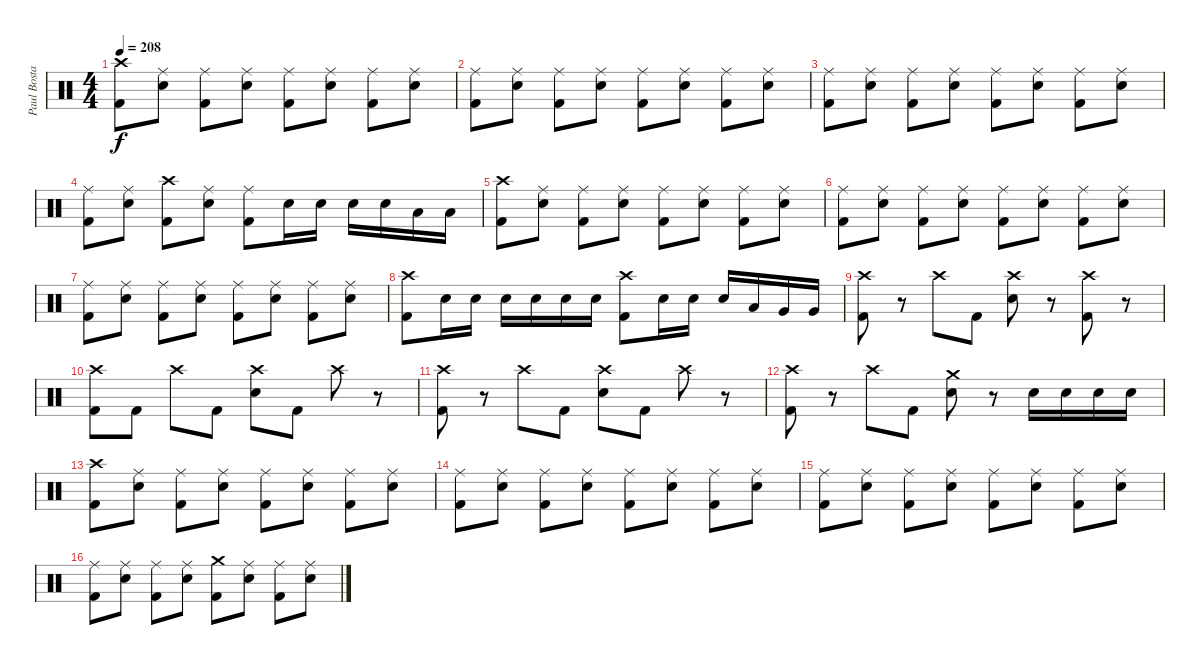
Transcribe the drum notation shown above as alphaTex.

\track ("Paul Bostaph" "Paul Bosta") {instrument percussion}
\staff {score}
\articulation defaults
\ts (4 4)
\tempo 208
\clef neutral
\ks c
("Crash high (hit)" "Kick (hit) 2").8{dy f} ("Ride (middle)" "Electric Snare (hit)").8 ("Ride (middle)" "Kick (hit) 2").8 ("Ride (middle)" "Electric Snare (hit)").8 ("Ride (middle)" "Kick (hit) 2").8 ("Ride (middle)" "Electric Snare (hit)").8 ("Ride (middle)" "Kick (hit) 2").8 ("Ride (middle)" "Electric Snare (hit)").8 |
("Ride (middle)" "Kick (hit) 2").8 ("Ride (middle)" "Electric Snare (hit)").8 ("Ride (middle)" "Kick (hit) 2").8 ("Ride (middle)" "Electric Snare (hit)").8 ("Ride (middle)" "Kick (hit) 2").8 ("Ride (middle)" "Electric Snare (hit)").8 ("Ride (middle)" "Kick (hit) 2").8 ("Ride (middle)" "Electric Snare (hit)").8 |
("Ride (middle)" "Kick (hit) 2").8 ("Ride (middle)" "Electric Snare (hit)").8 ("Ride (middle)" "Kick (hit) 2").8 ("Ride (middle)" "Electric Snare (hit)").8 ("Ride (middle)" "Kick (hit) 2").8 ("Ride (middle)" "Electric Snare (hit)").8 ("Ride (middle)" "Kick (hit) 2").8 ("Ride (middle)" "Electric Snare (hit)").8 |
("Ride (middle)" "Kick (hit) 2").8 ("Ride (middle)" "Electric Snare (hit)").8 ("Crash high (hit)" "Kick (hit) 2").8 ("Ride (middle)" "Electric Snare (hit)").8 ("Ride (middle)" "Kick (hit) 2").8 "Electric Snare (hit)".16 "Electric Snare (hit)".16 "Electric Snare (hit)".16 "Electric Snare (hit)".16 "Low Tom (hit)".16 "Low Tom (hit)".16 |
("Crash high (hit)" "Kick (hit) 2").8 ("Ride (middle)" "Electric Snare (hit)").8 ("Ride (middle)" "Kick (hit) 2").8 ("Ride (middle)" "Electric Snare (hit)").8 ("Ride (middle)" "Kick (hit) 2").8 ("Ride (middle)" "Electric Snare (hit)").8 ("Ride (middle)" "Kick (hit) 2").8 ("Ride (middle)" "Electric Snare (hit)").8 |
("Ride (middle)" "Kick (hit) 2").8 ("Ride (middle)" "Electric Snare (hit)").8 ("Ride (middle)" "Kick (hit) 2").8 ("Ride (middle)" "Electric Snare (hit)").8 ("Ride (middle)" "Kick (hit) 2").8 ("Ride (middle)" "Electric Snare (hit)").8 ("Ride (middle)" "Kick (hit) 2").8 ("Ride (middle)" "Electric Snare (hit)").8 |
("Ride (middle)" "Kick (hit) 2").8 ("Ride (middle)" "Electric Snare (hit)").8 ("Ride (middle)" "Kick (hit) 2").8 ("Ride (middle)" "Electric Snare (hit)").8 ("Ride (middle)" "Kick (hit) 2").8 ("Ride (middle)" "Electric Snare (hit)").8 ("Ride (middle)" "Kick (hit) 2").8 ("Ride (middle)" "Electric Snare (hit)").8 |
("Crash high (hit)" "Kick (hit) 2").8 "Electric Snare (hit)".16 "Electric Snare (hit)".16 "Electric Snare (hit)".16 "Electric Snare (hit)".16 "Electric Snare (hit)".16 "Electric Snare (hit)".16 ("Crash high (hit)" "Kick (hit) 2").8 "Electric Snare (hit)".16 "Electric Snare (hit)".16 "Electric Snare (hit)".16 "Low Tom (hit)".16 "Very Low Tom (hit)".16 "Very Low Tom (hit)".16 |
("Crash high (hit)" "Kick (hit) 2").8 r.8 "Crash high (hit)".8 "Kick (hit) 2".8 ("Crash high (hit)" "Electric Snare (hit)").8 r.8 ("Crash high (hit)" "Kick (hit) 2").8 r.8 |
("Crash high (hit)" "Kick (hit) 2").8 "Kick (hit) 2".8 "Crash high (hit)".8 "Kick (hit) 2".8 ("Crash high (hit)" "Electric Snare (hit)").8 "Kick (hit) 2".8 "Crash high (hit)".8 r.8 |
("Crash high (hit)" "Kick (hit) 2").8 r.8 "Crash high (hit)".8 "Kick (hit) 2".8 ("Crash high (hit)" "Electric Snare (hit)").8 "Kick (hit) 2".8 "Crash high (hit)".8 r.8 |
("Crash high (hit)" "Kick (hit) 2").8 r.8 "Crash high (hit)".8 "Kick (hit) 2".8 ("Crash medium (hit)" "Electric Snare (hit)").8 r.8 "Electric Snare (hit)".16 "Electric Snare (hit)".16 "Electric Snare (hit)".16 "Electric Snare (hit)".16 |
("Crash high (hit)" "Kick (hit) 2").8 ("Ride (middle)" "Electric Snare (hit)").8 ("Ride (middle)" "Kick (hit) 2").8 ("Ride (middle)" "Electric Snare (hit)").8 ("Ride (middle)" "Kick (hit) 2").8 ("Ride (middle)" "Electric Snare (hit)").8 ("Ride (middle)" "Kick (hit) 2").8 ("Ride (middle)" "Electric Snare (hit)").8 |
("Ride (middle)" "Kick (hit) 2").8 ("Ride (middle)" "Electric Snare (hit)").8 ("Ride (middle)" "Kick (hit) 2").8 ("Ride (middle)" "Electric Snare (hit)").8 ("Ride (middle)" "Kick (hit) 2").8 ("Ride (middle)" "Electric Snare (hit)").8 ("Ride (middle)" "Kick (hit) 2").8 ("Ride (middle)" "Electric Snare (hit)").8 |
("Ride (middle)" "Kick (hit) 2").8 ("Ride (middle)" "Electric Snare (hit)").8 ("Ride (middle)" "Kick (hit) 2").8 ("Ride (middle)" "Electric Snare (hit)").8 ("Ride (middle)" "Kick (hit) 2").8 ("Ride (middle)" "Electric Snare (hit)").8 ("Ride (middle)" "Kick (hit) 2").8 ("Ride (middle)" "Electric Snare (hit)").8 |
("Ride (middle)" "Kick (hit) 2").8 ("Ride (middle)" "Electric Snare (hit)").8 ("Ride (middle)" "Kick (hit) 2").8 ("Ride (middle)" "Electric Snare (hit)").8 ("Crash medium (hit)" "Kick (hit) 2").8 ("Ride (middle)" "Electric Snare (hit)").8 ("Ride (middle)" "Kick (hit) 2").8 ("Ride (middle)" "Electric Snare (hit)").8
